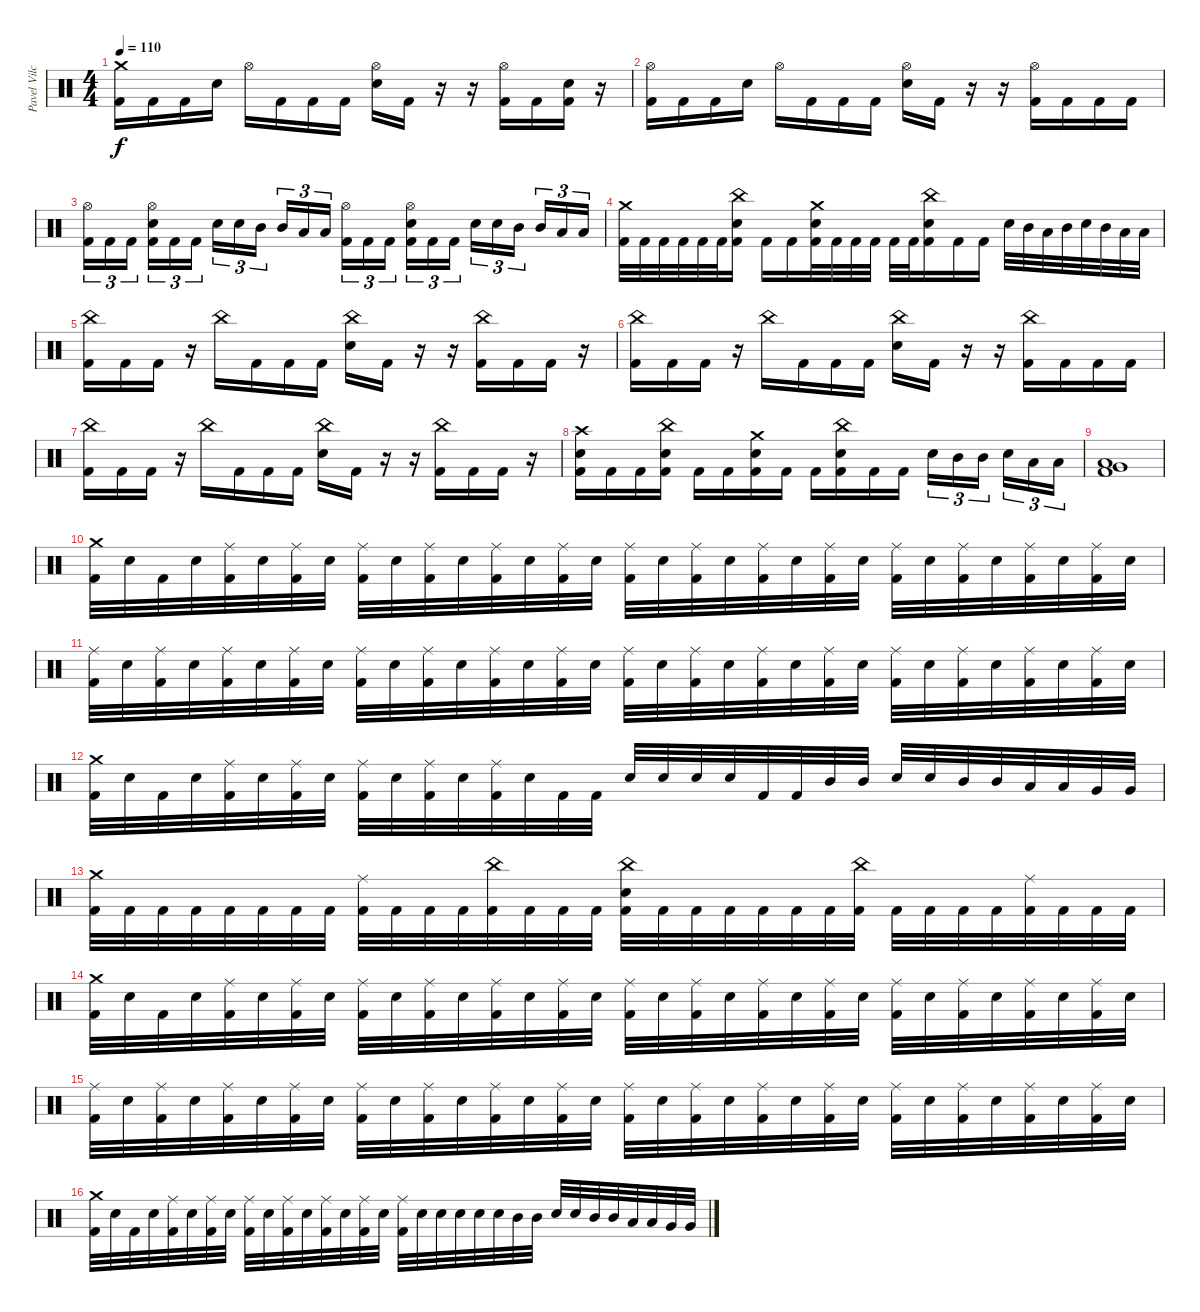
\track ("Pavel Vilchytski" "Pavel Vilc") {instrument percussion}
\staff {score}
\articulation defaults
\ts (4 4)
\tempo 110
\clef neutral
\ks c
("Crash medium (hit)" "Kick (hit) 2").16{dy f} "Kick (hit) 2".16 "Kick (hit) 2".16 "Electric Snare (hit)".16 "Hi-Hat (open)".16 "Kick (hit) 2".16 "Kick (hit) 2".16 "Kick (hit) 2".16 ("Hi-Hat (open)" "Electric Snare (hit)").16 "Kick (hit) 2".16 r.16 r.16 ("Hi-Hat (open)" "Kick (hit) 2").16 "Kick (hit) 2".16 ("Electric Snare (hit)" "Kick (hit) 2").16 r.16 |
("Hi-Hat (open)" "Kick (hit) 2").16 "Kick (hit) 2".16 "Kick (hit) 2".16 "Electric Snare (hit)".16 "Hi-Hat (open)".16 "Kick (hit) 2".16 "Kick (hit) 2".16 "Kick (hit) 2".16 ("Hi-Hat (open)" "Electric Snare (hit)").16 "Kick (hit) 2".16 r.16 r.16 ("Hi-Hat (open)" "Kick (hit) 2").16 "Kick (hit) 2".16 "Kick (hit) 2".16 "Kick (hit) 2".16 |
("Hi-Hat (open)" "Kick (hit) 2").16{tu (3 2)} "Kick (hit) 2".16{tu (3 2)} "Kick (hit) 2".16{tu (3 2) beam splitsecondary} ("Hi-Hat (open)" "Electric Snare (hit)" "Kick (hit) 2").16{tu (3 2)} "Kick (hit) 2".16{tu (3 2)} "Kick (hit) 2".16{tu (3 2)} "Electric Snare (hit)".16{tu (3 2)} "Electric Snare (hit)".16{tu (3 2)} "Mid Tom (hit)".16{tu (3 2) beam splitsecondary} "Mid Tom (hit)".16{tu (3 2)} "Low Tom (hit)".16{tu (3 2)} "Low Tom (hit)".16{tu (3 2)} ("Hi-Hat (open)" "Kick (hit) 2").16{tu (3 2)} "Kick (hit) 2".16{tu (3 2)} "Kick (hit) 2".16{tu (3 2) beam splitsecondary} ("Hi-Hat (open)" "Electric Snare (hit)" "Kick (hit) 2").16{tu (3 2)} "Kick (hit) 2".16{tu (3 2)} "Kick (hit) 2".16{tu (3 2)} "Electric Snare (hit)".16{tu (3 2)} "Electric Snare (hit)".16{tu (3 2)} "Mid Tom (hit)".16{tu (3 2) beam splitsecondary} "Mid Tom (hit)".16{tu (3 2)} "Low Tom (hit)".16{tu (3 2)} "Low Tom (hit)".16{tu (3 2)} |
("Crash medium (hit)" "Kick (hit) 2").32 "Kick (hit) 2".32 "Kick (hit) 2".32 "Kick (hit) 2".32 "Kick (hit) 2".32 "Kick (hit) 2".32 ("China (hit)" "Electric Snare (hit)" "Kick (hit) 2").16 "Kick (hit) 2".16 "Kick (hit) 2".16 ("Crash medium (hit)" "Electric Snare (hit)" "Kick (hit) 2").32 "Kick (hit) 2".32 "Kick (hit) 2".32 "Kick (hit) 2".32 "Kick (hit) 2".32 "Kick (hit) 2".32 ("China (hit)" "Electric Snare (hit)" "Kick (hit) 2").16 "Kick (hit) 2".16 "Kick (hit) 2".16 "Electric Snare (hit)".32 "Mid Tom (hit)".32 "Low Tom (hit)".32 "Mid Tom (hit)".32 "Electric Snare (hit)".32 "Mid Tom (hit)".32 "Low Tom (hit)".32 "Low Tom (hit)".32 |
("China (hit)" "Kick (hit) 2").16 "Kick (hit) 2".16 "Kick (hit) 2".16 r.16 "China (hit)".16 "Kick (hit) 2".16 "Kick (hit) 2".16 "Kick (hit) 2".16 ("China (hit)" "Electric Snare (hit)").16 "Kick (hit) 2".16 r.16 r.16 ("China (hit)" "Kick (hit) 2").16 "Kick (hit) 2".16 "Kick (hit) 2".16 r.16 |
("China (hit)" "Kick (hit) 2").16 "Kick (hit) 2".16 "Kick (hit) 2".16 r.16 "China (hit)".16 "Kick (hit) 2".16 "Kick (hit) 2".16 "Kick (hit) 2".16 ("China (hit)" "Electric Snare (hit)").16 "Kick (hit) 2".16 r.16 r.16 ("China (hit)" "Kick (hit) 2").16 "Kick (hit) 2".16 "Kick (hit) 2".16 "Kick (hit) 2".16 |
("China (hit)" "Kick (hit) 2").16 "Kick (hit) 2".16 "Kick (hit) 2".16 r.16 "China (hit)".16 "Kick (hit) 2".16 "Kick (hit) 2".16 "Kick (hit) 2".16 ("China (hit)" "Electric Snare (hit)").16 "Kick (hit) 2".16 r.16 r.16 ("China (hit)" "Kick (hit) 2").16 "Kick (hit) 2".16 "Kick (hit) 2".16 r.16 |
("Crash high (hit)" "Electric Snare (hit)" "Kick (hit) 2").16 "Kick (hit) 2".16 "Kick (hit) 2".16 ("China (hit)" "Electric Snare (hit)" "Kick (hit) 2").16 "Kick (hit) 2".16 "Kick (hit) 2".16 ("Crash medium (hit)" "Electric Snare (hit)" "Kick (hit) 2").16 "Kick (hit) 2".16 "Kick (hit) 2".16 ("China (hit)" "Electric Snare (hit)" "Kick (hit) 2").16 "Kick (hit) 2".16 "Kick (hit) 2".16 "Electric Snare (hit)".16{tu (3 2)} "Mid Tom (hit)".16{tu (3 2)} "Mid Tom (hit)".16{tu (3 2) beam splitsecondary} "Electric Snare (hit)".16{tu (3 2)} "Low Tom (hit)".16{tu (3 2)} "Low Tom (hit)".16{tu (3 2)} |
("Low Tom (hit)" "Very Low Tom (hit)" "Kick (hit) 2").1 |
("Crash medium (hit)" "Kick (hit) 2").32 "Electric Snare (hit)".32 "Kick (hit) 2".32 "Electric Snare (hit)".32 ("Ride (middle)" "Kick (hit) 2").32 "Electric Snare (hit)".32 ("Ride (middle)" "Kick (hit) 2").32 "Electric Snare (hit)".32 ("Ride (middle)" "Kick (hit) 2").32 "Electric Snare (hit)".32 ("Ride (middle)" "Kick (hit) 2").32 "Electric Snare (hit)".32 ("Ride (middle)" "Kick (hit) 2").32 "Electric Snare (hit)".32 ("Ride (middle)" "Kick (hit) 2").32 "Electric Snare (hit)".32 ("Ride (middle)" "Kick (hit) 2").32 "Electric Snare (hit)".32 ("Ride (middle)" "Kick (hit) 2").32 "Electric Snare (hit)".32 ("Ride (middle)" "Kick (hit) 2").32 "Electric Snare (hit)".32 ("Ride (middle)" "Kick (hit) 2").32 "Electric Snare (hit)".32 ("Ride (middle)" "Kick (hit) 2").32 "Electric Snare (hit)".32 ("Ride (middle)" "Kick (hit) 2").32 "Electric Snare (hit)".32 ("Ride (middle)" "Kick (hit) 2").32 "Electric Snare (hit)".32 ("Ride (middle)" "Kick (hit) 2").32 "Electric Snare (hit)".32 |
("Ride (middle)" "Kick (hit) 2").32 "Electric Snare (hit)".32 ("Ride (middle)" "Kick (hit) 2").32 "Electric Snare (hit)".32 ("Ride (middle)" "Kick (hit) 2").32 "Electric Snare (hit)".32 ("Ride (middle)" "Kick (hit) 2").32 "Electric Snare (hit)".32 ("Ride (middle)" "Kick (hit) 2").32 "Electric Snare (hit)".32 ("Ride (middle)" "Kick (hit) 2").32 "Electric Snare (hit)".32 ("Ride (middle)" "Kick (hit) 2").32 "Electric Snare (hit)".32 ("Ride (middle)" "Kick (hit) 2").32 "Electric Snare (hit)".32 ("Ride (middle)" "Kick (hit) 2").32 "Electric Snare (hit)".32 ("Ride (middle)" "Kick (hit) 2").32 "Electric Snare (hit)".32 ("Ride (middle)" "Kick (hit) 2").32 "Electric Snare (hit)".32 ("Ride (middle)" "Kick (hit) 2").32 "Electric Snare (hit)".32 ("Ride (middle)" "Kick (hit) 2").32 "Electric Snare (hit)".32 ("Ride (middle)" "Kick (hit) 2").32 "Electric Snare (hit)".32 ("Ride (middle)" "Kick (hit) 2").32 "Electric Snare (hit)".32 ("Ride (middle)" "Kick (hit) 2").32 "Electric Snare (hit)".32 |
("Crash medium (hit)" "Kick (hit) 2").32 "Electric Snare (hit)".32 "Kick (hit) 2".32 "Electric Snare (hit)".32 ("Ride (middle)" "Kick (hit) 2").32 "Electric Snare (hit)".32 ("Ride (middle)" "Kick (hit) 2").32 "Electric Snare (hit)".32 ("Ride (middle)" "Kick (hit) 2").32 "Electric Snare (hit)".32 ("Ride (middle)" "Kick (hit) 2").32 "Electric Snare (hit)".32 ("Ride (middle)" "Kick (hit) 2").32 "Electric Snare (hit)".32 "Kick (hit) 2".32 "Kick (hit) 2".32 "Electric Snare (hit)".32 "Electric Snare (hit)".32 "Electric Snare (hit)".32 "Electric Snare (hit)".32 "Kick (hit) 2".32 "Kick (hit) 2".32 "Mid Tom (hit)".32 "Mid Tom (hit)".32 "Electric Snare (hit)".32 "Electric Snare (hit)".32 "Mid Tom (hit)".32 "Mid Tom (hit)".32 "Low Tom (hit)".32 "Low Tom (hit)".32 "Very Low Tom (hit)".32 "Very Low Tom (hit)".32 |
("Crash medium (hit)" "Kick (hit) 2").32 "Kick (hit) 2".32 "Kick (hit) 2".32 "Kick (hit) 2".32 "Kick (hit) 2".32 "Kick (hit) 2".32 "Kick (hit) 2".32 "Kick (hit) 2".32 ("Ride (middle)" "Kick (hit) 2").32 "Kick (hit) 2".32 "Kick (hit) 2".32 "Kick (hit) 2".32 ("China (hit)" "Kick (hit) 2").32 "Kick (hit) 2".32 "Kick (hit) 2".32 "Kick (hit) 2".32 ("China (hit)" "Electric Snare (hit)" "Kick (hit) 2").32 "Kick (hit) 2".32 "Kick (hit) 2".32 "Kick (hit) 2".32 "Kick (hit) 2".32 "Kick (hit) 2".32 "Kick (hit) 2".32 ("China (hit)" "Kick (hit) 2").32 "Kick (hit) 2".32 "Kick (hit) 2".32 "Kick (hit) 2".32 "Kick (hit) 2".32 ("Ride (middle)" "Kick (hit) 2").32 "Kick (hit) 2".32 "Kick (hit) 2".32 "Kick (hit) 2".32 |
("Crash medium (hit)" "Kick (hit) 2").32 "Electric Snare (hit)".32 "Kick (hit) 2".32 "Electric Snare (hit)".32 ("Ride (middle)" "Kick (hit) 2").32 "Electric Snare (hit)".32 ("Ride (middle)" "Kick (hit) 2").32 "Electric Snare (hit)".32 ("Ride (middle)" "Kick (hit) 2").32 "Electric Snare (hit)".32 ("Ride (middle)" "Kick (hit) 2").32 "Electric Snare (hit)".32 ("Ride (middle)" "Kick (hit) 2").32 "Electric Snare (hit)".32 ("Ride (middle)" "Kick (hit) 2").32 "Electric Snare (hit)".32 ("Ride (middle)" "Kick (hit) 2").32 "Electric Snare (hit)".32 ("Ride (middle)" "Kick (hit) 2").32 "Electric Snare (hit)".32 ("Ride (middle)" "Kick (hit) 2").32 "Electric Snare (hit)".32 ("Ride (middle)" "Kick (hit) 2").32 "Electric Snare (hit)".32 ("Ride (middle)" "Kick (hit) 2").32 "Electric Snare (hit)".32 ("Ride (middle)" "Kick (hit) 2").32 "Electric Snare (hit)".32 ("Ride (middle)" "Kick (hit) 2").32 "Electric Snare (hit)".32 ("Ride (middle)" "Kick (hit) 2").32 "Electric Snare (hit)".32 |
("Ride (middle)" "Kick (hit) 2").32 "Electric Snare (hit)".32 ("Ride (middle)" "Kick (hit) 2").32 "Electric Snare (hit)".32 ("Ride (middle)" "Kick (hit) 2").32 "Electric Snare (hit)".32 ("Ride (middle)" "Kick (hit) 2").32 "Electric Snare (hit)".32 ("Ride (middle)" "Kick (hit) 2").32 "Electric Snare (hit)".32 ("Ride (middle)" "Kick (hit) 2").32 "Electric Snare (hit)".32 ("Ride (middle)" "Kick (hit) 2").32 "Electric Snare (hit)".32 ("Ride (middle)" "Kick (hit) 2").32 "Electric Snare (hit)".32 ("Ride (middle)" "Kick (hit) 2").32 "Electric Snare (hit)".32 ("Ride (middle)" "Kick (hit) 2").32 "Electric Snare (hit)".32 ("Ride (middle)" "Kick (hit) 2").32 "Electric Snare (hit)".32 ("Ride (middle)" "Kick (hit) 2").32 "Electric Snare (hit)".32 ("Ride (middle)" "Kick (hit) 2").32 "Electric Snare (hit)".32 ("Ride (middle)" "Kick (hit) 2").32 "Electric Snare (hit)".32 ("Ride (middle)" "Kick (hit) 2").32 "Electric Snare (hit)".32 ("Ride (middle)" "Kick (hit) 2").32 "Electric Snare (hit)".32 |
("Crash medium (hit)" "Kick (hit) 2").32 "Electric Snare (hit)".32 "Kick (hit) 2".32 "Electric Snare (hit)".32 ("Ride (middle)" "Kick (hit) 2").32 "Electric Snare (hit)".32 ("Ride (middle)" "Kick (hit) 2").32 "Electric Snare (hit)".32 ("Ride (middle)" "Kick (hit) 2").32 "Electric Snare (hit)".32 ("Ride (middle)" "Kick (hit) 2").32 "Electric Snare (hit)".32 ("Ride (middle)" "Kick (hit) 2").32 "Electric Snare (hit)".32 ("Ride (middle)" "Kick (hit) 2").32 "Electric Snare (hit)".32 ("Ride (middle)" "Kick (hit) 2").32 "Electric Snare (hit)".32 "Electric Snare (hit)".32 "Electric Snare (hit)".32 "Electric Snare (hit)".32 "Electric Snare (hit)".32 "Mid Tom (hit)".32 "Mid Tom (hit)".32 "Electric Snare (hit)".32 "Electric Snare (hit)".32 "Mid Tom (hit)".32 "Mid Tom (hit)".32 "Low Tom (hit)".32 "Low Tom (hit)".32 "Very Low Tom (hit)".32 "Very Low Tom (hit)".32
